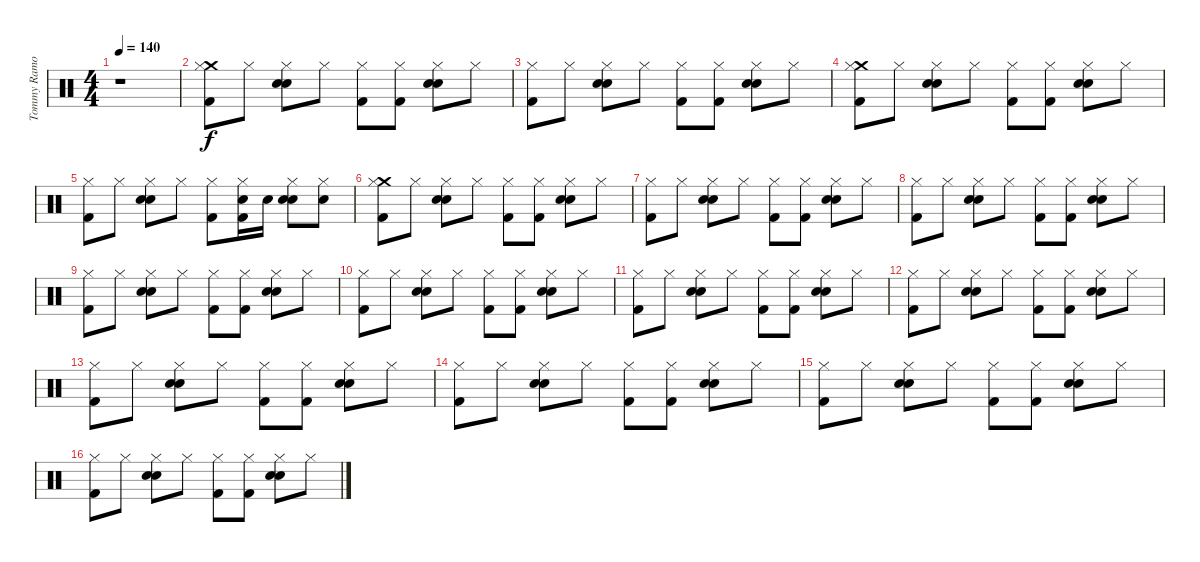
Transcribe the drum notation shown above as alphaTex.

\track ("Tommy Ramone" "Tommy Ramo") {instrument percussion}
\staff {score}
\articulation defaults
\ts (4 4)
\tempo 140
\clef neutral
\ks c
r.1{dy f} |
("Crash medium (hit)" "Kick (hit) 2" "Hi-Hat (closed)").8 "Hi-Hat (closed)".8 ("Electric Snare (hit)" "Snare (hit) 2" "Hi-Hat (closed)").8 "Hi-Hat (closed)".8 ("Kick (hit) 2" "Hi-Hat (closed)").8 ("Kick (hit) 2" "Hi-Hat (closed)").8 ("Electric Snare (hit)" "Snare (hit) 2" "Hi-Hat (closed)").8 "Hi-Hat (closed)".8 |
("Kick (hit) 2" "Hi-Hat (closed)").8 "Hi-Hat (closed)".8 ("Electric Snare (hit)" "Snare (hit) 2" "Hi-Hat (closed)").8 "Hi-Hat (closed)".8 ("Kick (hit) 2" "Hi-Hat (closed)").8 ("Kick (hit) 2" "Hi-Hat (closed)").8 ("Electric Snare (hit)" "Snare (hit) 2" "Hi-Hat (closed)").8 "Hi-Hat (closed)".8 |
("Crash medium (hit)" "Kick (hit) 2" "Hi-Hat (closed)").8 "Hi-Hat (closed)".8 ("Electric Snare (hit)" "Snare (hit) 2" "Hi-Hat (closed)").8 "Hi-Hat (closed)".8 ("Kick (hit) 2" "Hi-Hat (closed)").8 ("Kick (hit) 2" "Hi-Hat (closed)").8 ("Electric Snare (hit)" "Snare (hit) 2" "Hi-Hat (closed)").8 "Hi-Hat (closed)".8 |
("Kick (hit) 2" "Hi-Hat (closed)").8 "Hi-Hat (closed)".8 ("Electric Snare (hit)" "Snare (hit) 2" "Hi-Hat (closed)").8 "Hi-Hat (closed)".8 ("Kick (hit) 2" "Hi-Hat (closed)").8 ("Snare (hit) 2" "Kick (hit) 2" "Hi-Hat (closed)").16 "Electric Snare (hit)".16 ("Electric Snare (hit)" "Snare (hit) 2" "Hi-Hat (closed)").8 ("Electric Snare (hit)" "Hi-Hat (closed)").8 |
("Crash medium (hit)" "Kick (hit) 2" "Hi-Hat (closed)").8 "Hi-Hat (closed)".8 ("Electric Snare (hit)" "Snare (hit) 2" "Hi-Hat (closed)").8 "Hi-Hat (closed)".8 ("Kick (hit) 2" "Hi-Hat (closed)").8 ("Kick (hit) 2" "Hi-Hat (closed)").8 ("Electric Snare (hit)" "Snare (hit) 2" "Hi-Hat (closed)").8 "Hi-Hat (closed)".8 |
("Kick (hit) 2" "Hi-Hat (closed)").8 "Hi-Hat (closed)".8 ("Electric Snare (hit)" "Snare (hit) 2" "Hi-Hat (closed)").8 "Hi-Hat (closed)".8 ("Kick (hit) 2" "Hi-Hat (closed)").8 ("Kick (hit) 2" "Hi-Hat (closed)").8 ("Electric Snare (hit)" "Snare (hit) 2" "Hi-Hat (closed)").8 "Hi-Hat (closed)".8 |
("Kick (hit) 2" "Hi-Hat (closed)").8 "Hi-Hat (closed)".8 ("Electric Snare (hit)" "Snare (hit) 2" "Hi-Hat (closed)").8 "Hi-Hat (closed)".8 ("Kick (hit) 2" "Hi-Hat (closed)").8 ("Kick (hit) 2" "Hi-Hat (closed)").8 ("Electric Snare (hit)" "Snare (hit) 2" "Hi-Hat (closed)").8 "Hi-Hat (closed)".8 |
("Kick (hit) 2" "Hi-Hat (closed)").8 "Hi-Hat (closed)".8 ("Electric Snare (hit)" "Snare (hit) 2" "Hi-Hat (closed)").8 "Hi-Hat (closed)".8 ("Kick (hit) 2" "Hi-Hat (closed)").8 ("Kick (hit) 2" "Hi-Hat (closed)").8 ("Electric Snare (hit)" "Snare (hit) 2" "Hi-Hat (closed)").8 "Hi-Hat (closed)".8 |
("Kick (hit) 2" "Hi-Hat (closed)").8 "Hi-Hat (closed)".8 ("Electric Snare (hit)" "Snare (hit) 2" "Hi-Hat (closed)").8 "Hi-Hat (closed)".8 ("Kick (hit) 2" "Hi-Hat (closed)").8 ("Kick (hit) 2" "Hi-Hat (closed)").8 ("Electric Snare (hit)" "Snare (hit) 2" "Hi-Hat (closed)").8 "Hi-Hat (closed)".8 |
("Kick (hit) 2" "Hi-Hat (closed)").8 "Hi-Hat (closed)".8 ("Electric Snare (hit)" "Snare (hit) 2" "Hi-Hat (closed)").8 "Hi-Hat (closed)".8 ("Kick (hit) 2" "Hi-Hat (closed)").8 ("Kick (hit) 2" "Hi-Hat (closed)").8 ("Electric Snare (hit)" "Snare (hit) 2" "Hi-Hat (closed)").8 "Hi-Hat (closed)".8 |
("Kick (hit) 2" "Hi-Hat (closed)").8 "Hi-Hat (closed)".8 ("Electric Snare (hit)" "Snare (hit) 2" "Hi-Hat (closed)").8 "Hi-Hat (closed)".8 ("Kick (hit) 2" "Hi-Hat (closed)").8 ("Kick (hit) 2" "Hi-Hat (closed)").8 ("Electric Snare (hit)" "Snare (hit) 2" "Hi-Hat (closed)").8 "Hi-Hat (closed)".8 |
("Kick (hit) 2" "Hi-Hat (closed)").8 "Hi-Hat (closed)".8 ("Electric Snare (hit)" "Snare (hit) 2" "Hi-Hat (closed)").8 "Hi-Hat (closed)".8 ("Kick (hit) 2" "Hi-Hat (closed)").8 ("Kick (hit) 2" "Hi-Hat (closed)").8 ("Electric Snare (hit)" "Snare (hit) 2" "Hi-Hat (closed)").8 "Hi-Hat (closed)".8 |
("Kick (hit) 2" "Hi-Hat (closed)").8 "Hi-Hat (closed)".8 ("Electric Snare (hit)" "Snare (hit) 2" "Hi-Hat (closed)").8 "Hi-Hat (closed)".8 ("Kick (hit) 2" "Hi-Hat (closed)").8 ("Kick (hit) 2" "Hi-Hat (closed)").8 ("Electric Snare (hit)" "Snare (hit) 2" "Hi-Hat (closed)").8 "Hi-Hat (closed)".8 |
("Kick (hit) 2" "Hi-Hat (closed)").8 "Hi-Hat (closed)".8 ("Electric Snare (hit)" "Snare (hit) 2" "Hi-Hat (closed)").8 "Hi-Hat (closed)".8 ("Kick (hit) 2" "Hi-Hat (closed)").8 ("Kick (hit) 2" "Hi-Hat (closed)").8 ("Electric Snare (hit)" "Snare (hit) 2" "Hi-Hat (closed)").8 "Hi-Hat (closed)".8 |
("Kick (hit) 2" "Hi-Hat (closed)").8 "Hi-Hat (closed)".8 ("Electric Snare (hit)" "Snare (hit) 2" "Hi-Hat (closed)").8 "Hi-Hat (closed)".8 ("Kick (hit) 2" "Hi-Hat (closed)").8 ("Kick (hit) 2" "Hi-Hat (closed)").8 ("Electric Snare (hit)" "Snare (hit) 2" "Hi-Hat (closed)").8 "Hi-Hat (closed)".8
